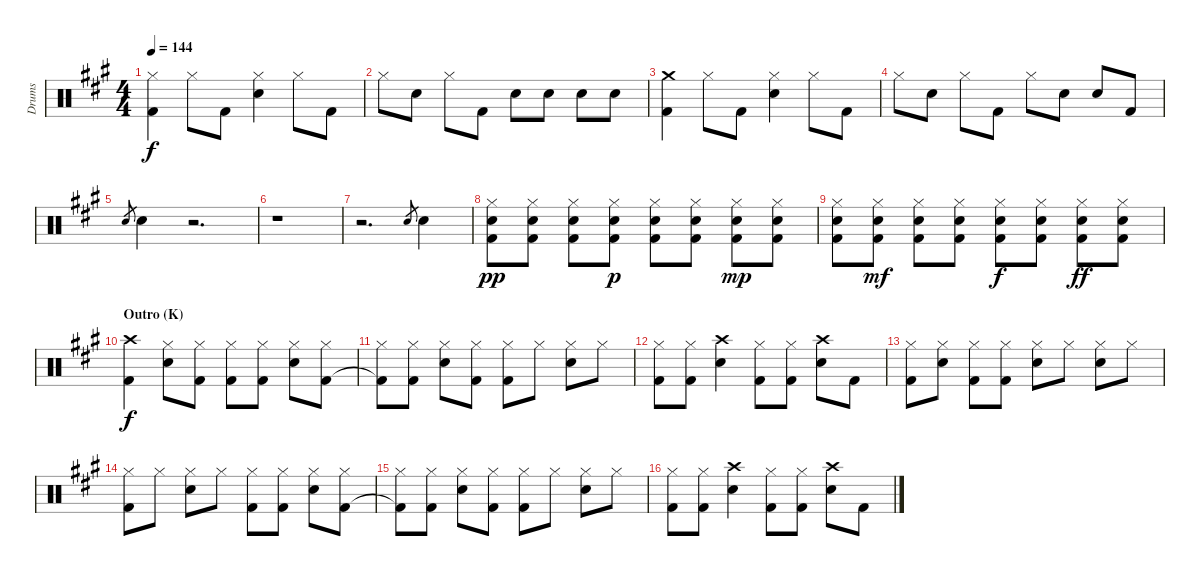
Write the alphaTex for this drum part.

\track ("Drums" "Drums") {instrument percussion}
\staff {score}
\articulation defaults
\ts (4 4)
\tempo 144
\clef neutral
\ks a
("Hi-Hat (closed)" "Kick (hit) 2").4{dy f} "Hi-Hat (closed)".8 "Kick (hit) 2".8 ("Hi-Hat (closed)" "Snare (hit) 2").4 "Hi-Hat (closed)".8 "Kick (hit) 2".8 |
"Hi-Hat (closed)".8 "Snare (hit) 2".8 "Hi-Hat (closed)".8 "Kick (hit) 2".8 "Snare (hit) 2".8 "Snare (hit) 2".8 "Snare (hit) 2".8 "Snare (hit) 2".8 |
("Crash medium (hit)" "Kick (hit) 2").4 "Hi-Hat (closed)".8 "Kick (hit) 2".8 ("Hi-Hat (closed)" "Snare (hit) 2").4 "Hi-Hat (closed)".8 "Kick (hit) 2".8 |
"Hi-Hat (closed)".8 "Snare (hit) 2".8 "Hi-Hat (closed)".8 "Kick (hit) 2".8 "Hi-Hat (closed)".8 "Snare (hit) 2".8 "Snare (hit) 2".8 "Kick (hit) 2".8 |
"Snare (hit) 2".8{gr} "Snare (hit) 2".4 r.2{d} |
r.1 |
r.2{d} "Snare (hit) 2".8{gr} "Snare (hit) 2".4 |
("Hi-Hat (closed)" "Snare (hit) 2" "Kick (hit) 2").8{dy pp} ("Hi-Hat (closed)" "Snare (hit) 2" "Kick (hit) 2").8 ("Hi-Hat (closed)" "Snare (hit) 2" "Kick (hit) 2").8 ("Hi-Hat (closed)" "Snare (hit) 2" "Kick (hit) 2").8{dy p} ("Hi-Hat (closed)" "Snare (hit) 2" "Kick (hit) 2").8 ("Hi-Hat (closed)" "Snare (hit) 2" "Kick (hit) 2").8 ("Hi-Hat (closed)" "Snare (hit) 2" "Kick (hit) 2").8{dy mp} ("Hi-Hat (closed)" "Snare (hit) 2" "Kick (hit) 2").8 |
("Hi-Hat (closed)" "Snare (hit) 2" "Kick (hit) 2").8 ("Hi-Hat (closed)" "Snare (hit) 2" "Kick (hit) 2").8{dy mf} ("Hi-Hat (closed)" "Snare (hit) 2" "Kick (hit) 2").8 ("Hi-Hat (closed)" "Snare (hit) 2" "Kick (hit) 2").8 ("Hi-Hat (closed)" "Snare (hit) 2" "Kick (hit) 2").8{dy f} ("Hi-Hat (closed)" "Snare (hit) 2" "Kick (hit) 2").8 ("Hi-Hat (closed)" "Snare (hit) 2" "Kick (hit) 2").8{dy ff} ("Hi-Hat (closed)" "Snare (hit) 2" "Kick (hit) 2").8 |
\section ("" "Outro (K)")
("Crash high (hit)" "Kick (hit) 2").4{dy f} ("Hi-Hat (closed)" "Snare (hit) 2").8 ("Hi-Hat (closed)" "Kick (hit) 2").8 ("Hi-Hat (closed)" "Kick (hit) 2").8 ("Hi-Hat (closed)" "Kick (hit) 2").8 ("Hi-Hat (closed)" "Snare (hit) 2").8 ("Hi-Hat (closed)" "Kick (hit) 2").8 |
("Hi-Hat (closed)" "Kick (hit) 2"{t}).8 ("Hi-Hat (closed)" "Kick (hit) 2").8 ("Hi-Hat (closed)" "Snare (hit) 2").8 ("Hi-Hat (closed)" "Kick (hit) 2").8 ("Hi-Hat (closed)" "Kick (hit) 2").8 "Hi-Hat (closed)".8 ("Hi-Hat (closed)" "Snare (hit) 2").8 "Hi-Hat (closed)".8 |
("Hi-Hat (closed)" "Kick (hit) 2").8 ("Hi-Hat (closed)" "Kick (hit) 2").8 ("Crash high (hit)" "Snare (hit) 2").4 ("Hi-Hat (closed)" "Kick (hit) 2").8 ("Hi-Hat (closed)" "Kick (hit) 2").8 ("Crash high (hit)" "Snare (hit) 2").8 "Kick (hit) 2".8 |
("Hi-Hat (closed)" "Kick (hit) 2").8 ("Hi-Hat (closed)" "Snare (hit) 2").8 ("Hi-Hat (closed)" "Kick (hit) 2").8 ("Hi-Hat (closed)" "Kick (hit) 2").8 ("Hi-Hat (closed)" "Snare (hit) 2").8 "Hi-Hat (closed)".8 ("Hi-Hat (closed)" "Snare (hit) 2").8 "Hi-Hat (closed)".8 |
("Hi-Hat (closed)" "Kick (hit) 2").8 "Hi-Hat (closed)".8 ("Hi-Hat (closed)" "Snare (hit) 2").8 "Hi-Hat (closed)".8 ("Hi-Hat (closed)" "Kick (hit) 2").8 ("Hi-Hat (closed)" "Kick (hit) 2").8 ("Hi-Hat (closed)" "Snare (hit) 2").8 ("Hi-Hat (closed)" "Kick (hit) 2").8 |
("Hi-Hat (closed)" "Kick (hit) 2"{t}).8 ("Hi-Hat (closed)" "Kick (hit) 2").8 ("Hi-Hat (closed)" "Snare (hit) 2").8 ("Hi-Hat (closed)" "Kick (hit) 2").8 ("Hi-Hat (closed)" "Kick (hit) 2").8 "Hi-Hat (closed)".8 ("Hi-Hat (closed)" "Snare (hit) 2").8 "Hi-Hat (closed)".8 |
("Hi-Hat (closed)" "Kick (hit) 2").8 ("Hi-Hat (closed)" "Kick (hit) 2").8 ("Crash high (hit)" "Snare (hit) 2").4 ("Hi-Hat (closed)" "Kick (hit) 2").8 ("Hi-Hat (closed)" "Kick (hit) 2").8 ("Crash high (hit)" "Snare (hit) 2").8 "Kick (hit) 2".8
